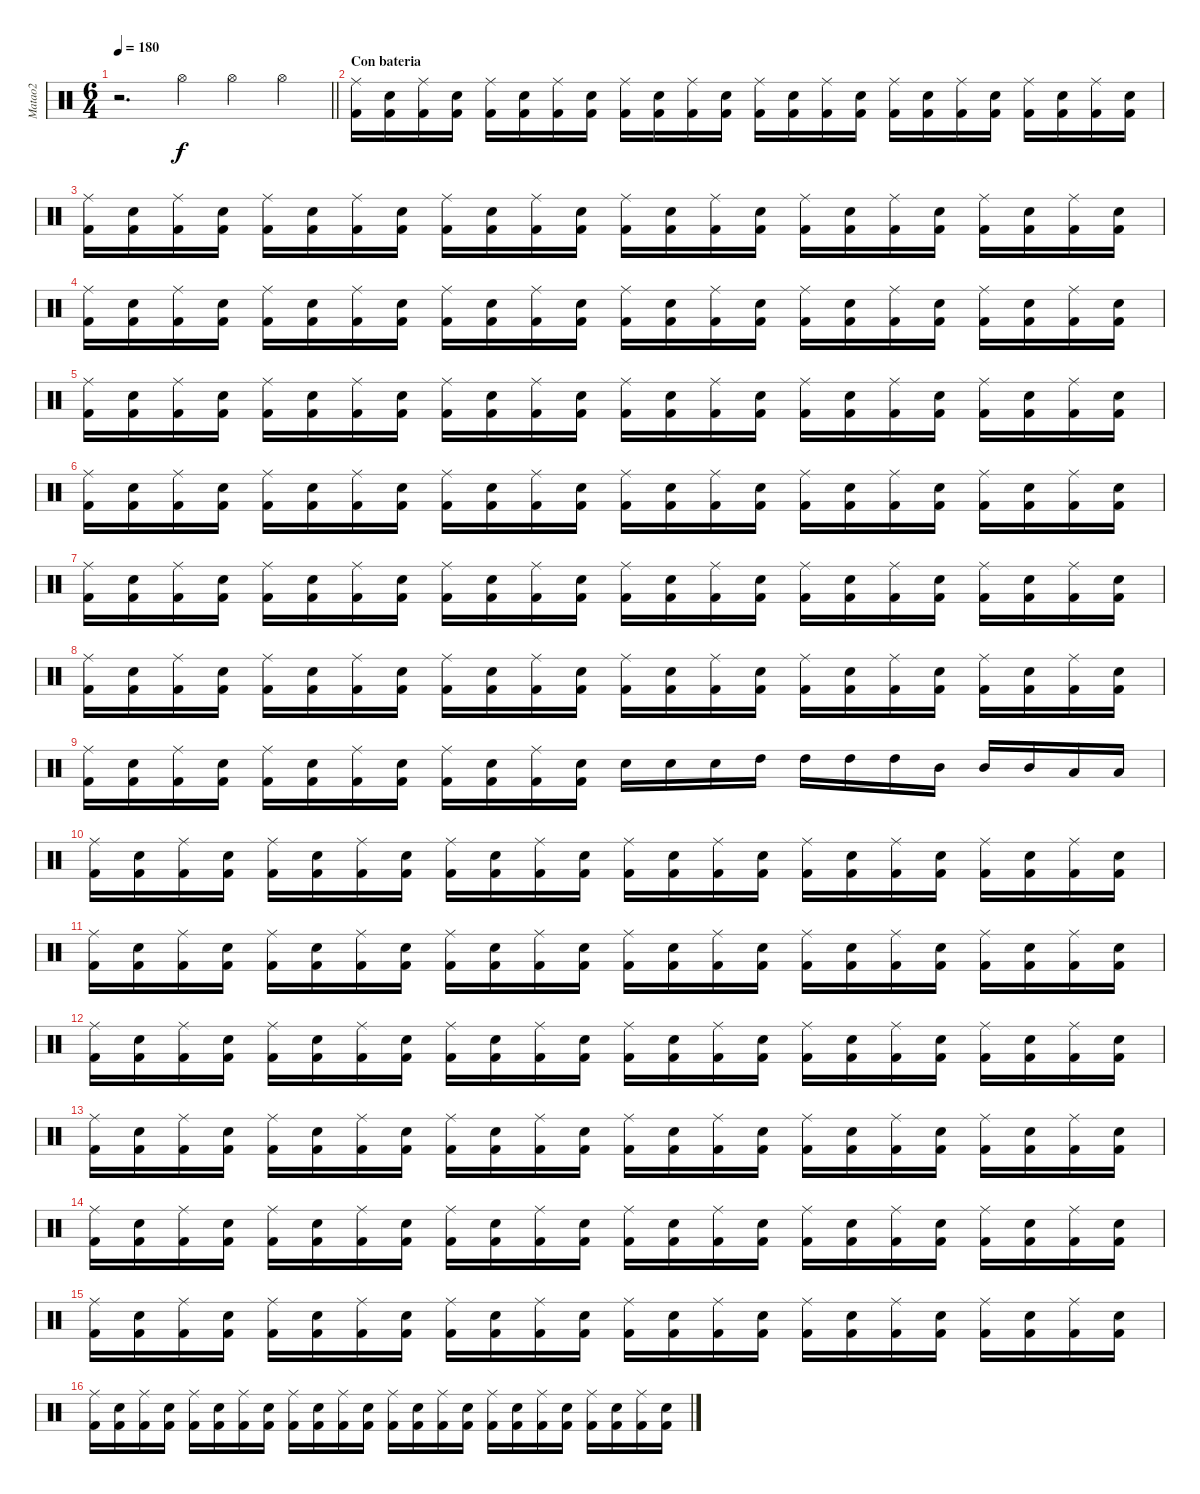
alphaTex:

\track ("Matao2" "Matao2") {instrument percussion}
\staff {score}
\articulation defaults
\ts (6 4)
\tempo 180
\clef neutral
\barLineRight lightlight
\ks c
r.2{d dy f} "Hi-Hat (open)".4 "Hi-Hat (open)".4 "Hi-Hat (open)".4 |
\section ("" "Con bateria")
("Kick (hit) 2" "Ride (middle)").16 ("Kick (hit) 2" "Electric Snare (hit)").16 ("Kick (hit) 2" "Ride (middle)").16 ("Kick (hit) 2" "Electric Snare (hit)").16 ("Kick (hit) 2" "Ride (middle)").16 ("Kick (hit) 2" "Electric Snare (hit)").16 ("Kick (hit) 2" "Ride (middle)").16 ("Kick (hit) 2" "Electric Snare (hit)").16 ("Kick (hit) 2" "Ride (middle)").16 ("Kick (hit) 2" "Electric Snare (hit)").16 ("Kick (hit) 2" "Ride (middle)").16 ("Kick (hit) 2" "Electric Snare (hit)").16 ("Kick (hit) 2" "Ride (middle)").16 ("Kick (hit) 2" "Electric Snare (hit)").16 ("Kick (hit) 2" "Ride (middle)").16 ("Kick (hit) 2" "Electric Snare (hit)").16 ("Kick (hit) 2" "Ride (middle)").16 ("Kick (hit) 2" "Electric Snare (hit)").16 ("Kick (hit) 2" "Ride (middle)").16 ("Kick (hit) 2" "Electric Snare (hit)").16 ("Kick (hit) 2" "Ride (middle)").16 ("Kick (hit) 2" "Electric Snare (hit)").16 ("Kick (hit) 2" "Ride (middle)").16 ("Kick (hit) 2" "Electric Snare (hit)").16 |
("Kick (hit) 2" "Ride (middle)").16 ("Kick (hit) 2" "Electric Snare (hit)").16 ("Kick (hit) 2" "Ride (middle)").16 ("Kick (hit) 2" "Electric Snare (hit)").16 ("Kick (hit) 2" "Ride (middle)").16 ("Kick (hit) 2" "Electric Snare (hit)").16 ("Kick (hit) 2" "Ride (middle)").16 ("Kick (hit) 2" "Electric Snare (hit)").16 ("Kick (hit) 2" "Ride (middle)").16 ("Kick (hit) 2" "Electric Snare (hit)").16 ("Kick (hit) 2" "Ride (middle)").16 ("Kick (hit) 2" "Electric Snare (hit)").16 ("Kick (hit) 2" "Ride (middle)").16 ("Kick (hit) 2" "Electric Snare (hit)").16 ("Kick (hit) 2" "Ride (middle)").16 ("Kick (hit) 2" "Electric Snare (hit)").16 ("Kick (hit) 2" "Ride (middle)").16 ("Kick (hit) 2" "Electric Snare (hit)").16 ("Kick (hit) 2" "Ride (middle)").16 ("Kick (hit) 2" "Electric Snare (hit)").16 ("Kick (hit) 2" "Ride (middle)").16 ("Kick (hit) 2" "Electric Snare (hit)").16 ("Kick (hit) 2" "Ride (middle)").16 ("Kick (hit) 2" "Electric Snare (hit)").16 |
("Kick (hit) 2" "Ride (middle)").16 ("Kick (hit) 2" "Electric Snare (hit)").16 ("Kick (hit) 2" "Ride (middle)").16 ("Kick (hit) 2" "Electric Snare (hit)").16 ("Kick (hit) 2" "Ride (middle)").16 ("Kick (hit) 2" "Electric Snare (hit)").16 ("Kick (hit) 2" "Ride (middle)").16 ("Kick (hit) 2" "Electric Snare (hit)").16 ("Kick (hit) 2" "Ride (middle)").16 ("Kick (hit) 2" "Electric Snare (hit)").16 ("Kick (hit) 2" "Ride (middle)").16 ("Kick (hit) 2" "Electric Snare (hit)").16 ("Kick (hit) 2" "Ride (middle)").16 ("Kick (hit) 2" "Electric Snare (hit)").16 ("Kick (hit) 2" "Ride (middle)").16 ("Kick (hit) 2" "Electric Snare (hit)").16 ("Kick (hit) 2" "Ride (middle)").16 ("Kick (hit) 2" "Electric Snare (hit)").16 ("Kick (hit) 2" "Ride (middle)").16 ("Kick (hit) 2" "Electric Snare (hit)").16 ("Kick (hit) 2" "Ride (middle)").16 ("Kick (hit) 2" "Electric Snare (hit)").16 ("Kick (hit) 2" "Ride (middle)").16 ("Kick (hit) 2" "Electric Snare (hit)").16 |
("Kick (hit) 2" "Ride (middle)").16 ("Kick (hit) 2" "Electric Snare (hit)").16 ("Kick (hit) 2" "Ride (middle)").16 ("Kick (hit) 2" "Electric Snare (hit)").16 ("Kick (hit) 2" "Ride (middle)").16 ("Kick (hit) 2" "Electric Snare (hit)").16 ("Kick (hit) 2" "Ride (middle)").16 ("Kick (hit) 2" "Electric Snare (hit)").16 ("Kick (hit) 2" "Ride (middle)").16 ("Kick (hit) 2" "Electric Snare (hit)").16 ("Kick (hit) 2" "Ride (middle)").16 ("Kick (hit) 2" "Electric Snare (hit)").16 ("Kick (hit) 2" "Ride (middle)").16 ("Kick (hit) 2" "Electric Snare (hit)").16 ("Kick (hit) 2" "Ride (middle)").16 ("Kick (hit) 2" "Electric Snare (hit)").16 ("Kick (hit) 2" "Ride (middle)").16 ("Kick (hit) 2" "Electric Snare (hit)").16 ("Kick (hit) 2" "Ride (middle)").16 ("Kick (hit) 2" "Electric Snare (hit)").16 ("Kick (hit) 2" "Ride (middle)").16 ("Kick (hit) 2" "Electric Snare (hit)").16 ("Kick (hit) 2" "Ride (middle)").16 ("Kick (hit) 2" "Electric Snare (hit)").16 |
("Kick (hit) 2" "Ride (middle)").16 ("Kick (hit) 2" "Electric Snare (hit)").16 ("Kick (hit) 2" "Ride (middle)").16 ("Kick (hit) 2" "Electric Snare (hit)").16 ("Kick (hit) 2" "Ride (middle)").16 ("Kick (hit) 2" "Electric Snare (hit)").16 ("Kick (hit) 2" "Ride (middle)").16 ("Kick (hit) 2" "Electric Snare (hit)").16 ("Kick (hit) 2" "Ride (middle)").16 ("Kick (hit) 2" "Electric Snare (hit)").16 ("Kick (hit) 2" "Ride (middle)").16 ("Kick (hit) 2" "Electric Snare (hit)").16 ("Kick (hit) 2" "Ride (middle)").16 ("Kick (hit) 2" "Electric Snare (hit)").16 ("Kick (hit) 2" "Ride (middle)").16 ("Kick (hit) 2" "Electric Snare (hit)").16 ("Kick (hit) 2" "Ride (middle)").16 ("Kick (hit) 2" "Electric Snare (hit)").16 ("Kick (hit) 2" "Ride (middle)").16 ("Kick (hit) 2" "Electric Snare (hit)").16 ("Kick (hit) 2" "Ride (middle)").16 ("Kick (hit) 2" "Electric Snare (hit)").16 ("Kick (hit) 2" "Ride (middle)").16 ("Kick (hit) 2" "Electric Snare (hit)").16 |
("Kick (hit) 2" "Ride (middle)").16 ("Kick (hit) 2" "Electric Snare (hit)").16 ("Kick (hit) 2" "Ride (middle)").16 ("Kick (hit) 2" "Electric Snare (hit)").16 ("Kick (hit) 2" "Ride (middle)").16 ("Kick (hit) 2" "Electric Snare (hit)").16 ("Kick (hit) 2" "Ride (middle)").16 ("Kick (hit) 2" "Electric Snare (hit)").16 ("Kick (hit) 2" "Ride (middle)").16 ("Kick (hit) 2" "Electric Snare (hit)").16 ("Kick (hit) 2" "Ride (middle)").16 ("Kick (hit) 2" "Electric Snare (hit)").16 ("Kick (hit) 2" "Ride (middle)").16 ("Kick (hit) 2" "Electric Snare (hit)").16 ("Kick (hit) 2" "Ride (middle)").16 ("Kick (hit) 2" "Electric Snare (hit)").16 ("Kick (hit) 2" "Ride (middle)").16 ("Kick (hit) 2" "Electric Snare (hit)").16 ("Kick (hit) 2" "Ride (middle)").16 ("Kick (hit) 2" "Electric Snare (hit)").16 ("Kick (hit) 2" "Ride (middle)").16 ("Kick (hit) 2" "Electric Snare (hit)").16 ("Kick (hit) 2" "Ride (middle)").16 ("Kick (hit) 2" "Electric Snare (hit)").16 |
("Kick (hit) 2" "Ride (middle)").16 ("Kick (hit) 2" "Electric Snare (hit)").16 ("Kick (hit) 2" "Ride (middle)").16 ("Kick (hit) 2" "Electric Snare (hit)").16 ("Kick (hit) 2" "Ride (middle)").16 ("Kick (hit) 2" "Electric Snare (hit)").16 ("Kick (hit) 2" "Ride (middle)").16 ("Kick (hit) 2" "Electric Snare (hit)").16 ("Kick (hit) 2" "Ride (middle)").16 ("Kick (hit) 2" "Electric Snare (hit)").16 ("Kick (hit) 2" "Ride (middle)").16 ("Kick (hit) 2" "Electric Snare (hit)").16 ("Kick (hit) 2" "Ride (middle)").16 ("Kick (hit) 2" "Electric Snare (hit)").16 ("Kick (hit) 2" "Ride (middle)").16 ("Kick (hit) 2" "Electric Snare (hit)").16 ("Kick (hit) 2" "Ride (middle)").16 ("Kick (hit) 2" "Electric Snare (hit)").16 ("Kick (hit) 2" "Ride (middle)").16 ("Kick (hit) 2" "Electric Snare (hit)").16 ("Kick (hit) 2" "Ride (middle)").16 ("Kick (hit) 2" "Electric Snare (hit)").16 ("Kick (hit) 2" "Ride (middle)").16 ("Kick (hit) 2" "Electric Snare (hit)").16 |
("Kick (hit) 2" "Ride (middle)").16 ("Kick (hit) 2" "Electric Snare (hit)").16 ("Kick (hit) 2" "Ride (middle)").16 ("Kick (hit) 2" "Electric Snare (hit)").16 ("Kick (hit) 2" "Ride (middle)").16 ("Kick (hit) 2" "Electric Snare (hit)").16 ("Kick (hit) 2" "Ride (middle)").16 ("Kick (hit) 2" "Electric Snare (hit)").16 ("Kick (hit) 2" "Ride (middle)").16 ("Kick (hit) 2" "Electric Snare (hit)").16 ("Kick (hit) 2" "Ride (middle)").16 ("Kick (hit) 2" "Electric Snare (hit)").16 "Electric Snare (hit)".16 "Electric Snare (hit)".16 "Electric Snare (hit)".16 "High Tom (hit)".16 "High Tom (hit)".16 "High Tom (hit)".16 "High Tom (hit)".16 "Mid Tom (hit)".16 "Mid Tom (hit)".16 "Mid Tom (hit)".16 "Low Tom (hit)".16 "Low Tom (hit)".16 |
("Kick (hit) 2" "Ride (middle)").16 ("Kick (hit) 2" "Electric Snare (hit)").16 ("Kick (hit) 2" "Ride (middle)").16 ("Kick (hit) 2" "Electric Snare (hit)").16 ("Kick (hit) 2" "Ride (middle)").16 ("Kick (hit) 2" "Electric Snare (hit)").16 ("Kick (hit) 2" "Ride (middle)").16 ("Kick (hit) 2" "Electric Snare (hit)").16 ("Kick (hit) 2" "Ride (middle)").16 ("Kick (hit) 2" "Electric Snare (hit)").16 ("Kick (hit) 2" "Ride (middle)").16 ("Kick (hit) 2" "Electric Snare (hit)").16 ("Kick (hit) 2" "Ride (middle)").16 ("Kick (hit) 2" "Electric Snare (hit)").16 ("Kick (hit) 2" "Ride (middle)").16 ("Kick (hit) 2" "Electric Snare (hit)").16 ("Kick (hit) 2" "Ride (middle)").16 ("Kick (hit) 2" "Electric Snare (hit)").16 ("Kick (hit) 2" "Ride (middle)").16 ("Kick (hit) 2" "Electric Snare (hit)").16 ("Kick (hit) 2" "Ride (middle)").16 ("Kick (hit) 2" "Electric Snare (hit)").16 ("Kick (hit) 2" "Ride (middle)").16 ("Kick (hit) 2" "Electric Snare (hit)").16 |
("Kick (hit) 2" "Ride (middle)").16 ("Kick (hit) 2" "Electric Snare (hit)").16 ("Kick (hit) 2" "Ride (middle)").16 ("Kick (hit) 2" "Electric Snare (hit)").16 ("Kick (hit) 2" "Ride (middle)").16 ("Kick (hit) 2" "Electric Snare (hit)").16 ("Kick (hit) 2" "Ride (middle)").16 ("Kick (hit) 2" "Electric Snare (hit)").16 ("Kick (hit) 2" "Ride (middle)").16 ("Kick (hit) 2" "Electric Snare (hit)").16 ("Kick (hit) 2" "Ride (middle)").16 ("Kick (hit) 2" "Electric Snare (hit)").16 ("Kick (hit) 2" "Ride (middle)").16 ("Kick (hit) 2" "Electric Snare (hit)").16 ("Kick (hit) 2" "Ride (middle)").16 ("Kick (hit) 2" "Electric Snare (hit)").16 ("Kick (hit) 2" "Ride (middle)").16 ("Kick (hit) 2" "Electric Snare (hit)").16 ("Kick (hit) 2" "Ride (middle)").16 ("Kick (hit) 2" "Electric Snare (hit)").16 ("Kick (hit) 2" "Ride (middle)").16 ("Kick (hit) 2" "Electric Snare (hit)").16 ("Kick (hit) 2" "Ride (middle)").16 ("Kick (hit) 2" "Electric Snare (hit)").16 |
("Kick (hit) 2" "Ride (middle)").16 ("Kick (hit) 2" "Electric Snare (hit)").16 ("Kick (hit) 2" "Ride (middle)").16 ("Kick (hit) 2" "Electric Snare (hit)").16 ("Kick (hit) 2" "Ride (middle)").16 ("Kick (hit) 2" "Electric Snare (hit)").16 ("Kick (hit) 2" "Ride (middle)").16 ("Kick (hit) 2" "Electric Snare (hit)").16 ("Kick (hit) 2" "Ride (middle)").16 ("Kick (hit) 2" "Electric Snare (hit)").16 ("Kick (hit) 2" "Ride (middle)").16 ("Kick (hit) 2" "Electric Snare (hit)").16 ("Kick (hit) 2" "Ride (middle)").16 ("Kick (hit) 2" "Electric Snare (hit)").16 ("Kick (hit) 2" "Ride (middle)").16 ("Kick (hit) 2" "Electric Snare (hit)").16 ("Kick (hit) 2" "Ride (middle)").16 ("Kick (hit) 2" "Electric Snare (hit)").16 ("Kick (hit) 2" "Ride (middle)").16 ("Kick (hit) 2" "Electric Snare (hit)").16 ("Kick (hit) 2" "Ride (middle)").16 ("Kick (hit) 2" "Electric Snare (hit)").16 ("Kick (hit) 2" "Ride (middle)").16 ("Kick (hit) 2" "Electric Snare (hit)").16 |
("Kick (hit) 2" "Ride (middle)").16 ("Kick (hit) 2" "Electric Snare (hit)").16 ("Kick (hit) 2" "Ride (middle)").16 ("Kick (hit) 2" "Electric Snare (hit)").16 ("Kick (hit) 2" "Ride (middle)").16 ("Kick (hit) 2" "Electric Snare (hit)").16 ("Kick (hit) 2" "Ride (middle)").16 ("Kick (hit) 2" "Electric Snare (hit)").16 ("Kick (hit) 2" "Ride (middle)").16 ("Kick (hit) 2" "Electric Snare (hit)").16 ("Kick (hit) 2" "Ride (middle)").16 ("Kick (hit) 2" "Electric Snare (hit)").16 ("Kick (hit) 2" "Ride (middle)").16 ("Kick (hit) 2" "Electric Snare (hit)").16 ("Kick (hit) 2" "Ride (middle)").16 ("Kick (hit) 2" "Electric Snare (hit)").16 ("Kick (hit) 2" "Ride (middle)").16 ("Kick (hit) 2" "Electric Snare (hit)").16 ("Kick (hit) 2" "Ride (middle)").16 ("Kick (hit) 2" "Electric Snare (hit)").16 ("Kick (hit) 2" "Ride (middle)").16 ("Kick (hit) 2" "Electric Snare (hit)").16 ("Kick (hit) 2" "Ride (middle)").16 ("Kick (hit) 2" "Electric Snare (hit)").16 |
("Kick (hit) 2" "Ride (middle)").16 ("Kick (hit) 2" "Electric Snare (hit)").16 ("Kick (hit) 2" "Ride (middle)").16 ("Kick (hit) 2" "Electric Snare (hit)").16 ("Kick (hit) 2" "Ride (middle)").16 ("Kick (hit) 2" "Electric Snare (hit)").16 ("Kick (hit) 2" "Ride (middle)").16 ("Kick (hit) 2" "Electric Snare (hit)").16 ("Kick (hit) 2" "Ride (middle)").16 ("Kick (hit) 2" "Electric Snare (hit)").16 ("Kick (hit) 2" "Ride (middle)").16 ("Kick (hit) 2" "Electric Snare (hit)").16 ("Kick (hit) 2" "Ride (middle)").16 ("Kick (hit) 2" "Electric Snare (hit)").16 ("Kick (hit) 2" "Ride (middle)").16 ("Kick (hit) 2" "Electric Snare (hit)").16 ("Kick (hit) 2" "Ride (middle)").16 ("Kick (hit) 2" "Electric Snare (hit)").16 ("Kick (hit) 2" "Ride (middle)").16 ("Kick (hit) 2" "Electric Snare (hit)").16 ("Kick (hit) 2" "Ride (middle)").16 ("Kick (hit) 2" "Electric Snare (hit)").16 ("Kick (hit) 2" "Ride (middle)").16 ("Kick (hit) 2" "Electric Snare (hit)").16 |
("Kick (hit) 2" "Ride (middle)").16 ("Kick (hit) 2" "Electric Snare (hit)").16 ("Kick (hit) 2" "Ride (middle)").16 ("Kick (hit) 2" "Electric Snare (hit)").16 ("Kick (hit) 2" "Ride (middle)").16 ("Kick (hit) 2" "Electric Snare (hit)").16 ("Kick (hit) 2" "Ride (middle)").16 ("Kick (hit) 2" "Electric Snare (hit)").16 ("Kick (hit) 2" "Ride (middle)").16 ("Kick (hit) 2" "Electric Snare (hit)").16 ("Kick (hit) 2" "Ride (middle)").16 ("Kick (hit) 2" "Electric Snare (hit)").16 ("Kick (hit) 2" "Ride (middle)").16 ("Kick (hit) 2" "Electric Snare (hit)").16 ("Kick (hit) 2" "Ride (middle)").16 ("Kick (hit) 2" "Electric Snare (hit)").16 ("Kick (hit) 2" "Ride (middle)").16 ("Kick (hit) 2" "Electric Snare (hit)").16 ("Kick (hit) 2" "Ride (middle)").16 ("Kick (hit) 2" "Electric Snare (hit)").16 ("Kick (hit) 2" "Ride (middle)").16 ("Kick (hit) 2" "Electric Snare (hit)").16 ("Kick (hit) 2" "Ride (middle)").16 ("Kick (hit) 2" "Electric Snare (hit)").16 |
("Kick (hit) 2" "Ride (middle)").16 ("Kick (hit) 2" "Electric Snare (hit)").16 ("Kick (hit) 2" "Ride (middle)").16 ("Kick (hit) 2" "Electric Snare (hit)").16 ("Kick (hit) 2" "Ride (middle)").16 ("Kick (hit) 2" "Electric Snare (hit)").16 ("Kick (hit) 2" "Ride (middle)").16 ("Kick (hit) 2" "Electric Snare (hit)").16 ("Kick (hit) 2" "Ride (middle)").16 ("Kick (hit) 2" "Electric Snare (hit)").16 ("Kick (hit) 2" "Ride (middle)").16 ("Kick (hit) 2" "Electric Snare (hit)").16 ("Kick (hit) 2" "Ride (middle)").16 ("Kick (hit) 2" "Electric Snare (hit)").16 ("Kick (hit) 2" "Ride (middle)").16 ("Kick (hit) 2" "Electric Snare (hit)").16 ("Kick (hit) 2" "Ride (middle)").16 ("Kick (hit) 2" "Electric Snare (hit)").16 ("Kick (hit) 2" "Ride (middle)").16 ("Kick (hit) 2" "Electric Snare (hit)").16 ("Kick (hit) 2" "Ride (middle)").16 ("Kick (hit) 2" "Electric Snare (hit)").16 ("Kick (hit) 2" "Ride (middle)").16 ("Kick (hit) 2" "Electric Snare (hit)").16
